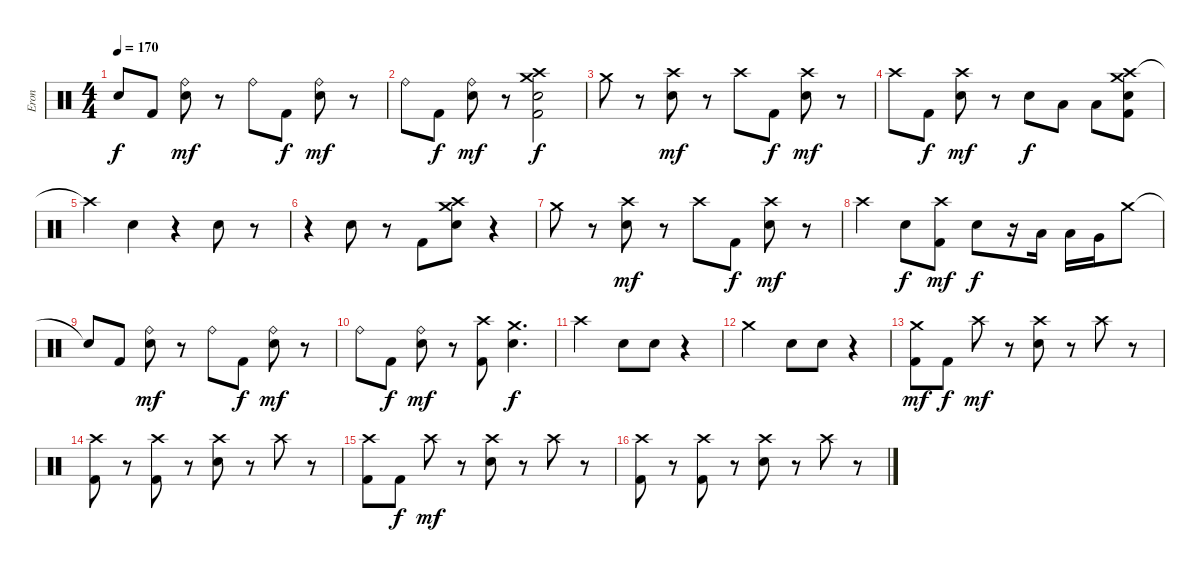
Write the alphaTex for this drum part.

\track ("Eron" "Eron") {instrument percussion}
\staff {score}
\articulation defaults
\ts (4 4)
\tempo 170
\clef neutral
\ks c "Snare (hit)"{t}.8{dy f} "Kick (hit) 2".8
("Ride (bell)" "Snare (hit) 2").8{dy mf} r.8 "Ride (bell)".8 "Kick (hit) 2".8{dy f} ("Ride (bell)" "Snare (hit) 2").8{dy mf} r.8 |
"Ride (bell)".8 "Kick (hit) 2".8{dy f} ("Ride (bell)" "Snare (hit) 2").8{dy mf} r.8 ("Crash high (hit)" "Crash medium (hit)" "Snare (hit) 2" "Kick (hit) 2").2{dy f} |
"Crash medium (hit)".8 r.8 ("Crash high (hit)" "Snare (hit) 2").8{dy mf} r.8 "Crash high (hit)".8 "Kick (hit) 2".8{dy f} ("Crash high (hit)" "Snare (hit) 2").8{dy mf} r.8 |
"Crash high (hit)".8 "Kick (hit) 2".8{dy f} ("Crash high (hit)" "Snare (hit) 2").8{dy mf} r.8 "Snare (hit) 2".8{dy f} "Low Tom (hit)".8 "Low Floor Tom (hit)".8 ("Crash high (hit)" "Crash medium (hit)" "Snare (hit) 2" "Kick (hit) 2").8 |
"Crash high (hit)"{t}.4 "Snare (hit) 2".4 r.4 "Snare (hit) 2".8 r.8 |
r.4 "Snare (hit) 2".8 r.8 "Kick (hit) 2".8 ("Crash medium (hit)" "Crash high (hit)" "Snare (hit) 2").8 r.4 |
"Crash medium (hit)".8 r.8 ("Crash high (hit)" "Snare (hit) 2").8{dy mf} r.8 "Crash high (hit)".8 "Kick (hit) 2".8{dy f} ("Crash high (hit)" "Snare (hit) 2").8{dy mf} r.8 |
"Crash high (hit)".4 "Snare (hit) 2".8{dy f} ("Crash high (hit)" "Kick (hit) 2").8{dy mf} "Snare (hit) 2".8{dy f} r.16 "Low Tom (hit)".16 "Low Tom (hit)".16 "Very Low Tom (hit)".16 "Crash medium (hit)".8 |
"Snare (hit)"{t}.8 "Kick (hit) 2".8 ("Ride (bell)" "Snare (hit) 2").8{dy mf} r.8 "Ride (bell)".8 "Kick (hit) 2".8{dy f} ("Ride (bell)" "Snare (hit) 2").8{dy mf} r.8 |
"Ride (bell)".8 "Kick (hit) 2".8{dy f} ("Ride (bell)" "Snare (hit) 2").8{dy mf} r.8 ("Crash high (hit)" "Kick (hit) 2").8 ("Crash medium (hit)" "Snare (hit) 2").4{d dy f} |
"Crash high (hit)".2 "Snare (hit) 2".8 "Snare (hit) 2".8 r.4 |
"Crash medium (hit)".2 "Snare (hit) 2".8 "Snare (hit) 2".8 r.4 |
("Crash medium (hit)" "Kick (hit) 2").8{dy mf} "Kick (hit) 2".8{dy f} "Crash high (hit)".8{dy mf} r.8 ("Crash high (hit)" "Snare (hit) 2").8 r.8 "Crash high (hit)".8 r.8 |
("Crash high (hit)" "Kick (hit) 2").8 r.8 ("Crash high (hit)" "Kick (hit) 2").8 r.8 ("Crash high (hit)" "Snare (hit) 2").8 r.8 "Crash high (hit)".8 r.8 |
("Crash high (hit)" "Kick (hit) 2").8 "Kick (hit) 2".8{dy f} "Crash high (hit)".8{dy mf} r.8 ("Crash high (hit)" "Snare (hit) 2").8 r.8 "Crash high (hit)".8 r.8 |
("Crash high (hit)" "Kick (hit) 2").8 r.8 ("Crash high (hit)" "Kick (hit) 2").8 r.8 ("Crash high (hit)" "Snare (hit) 2").8 r.8 "Crash high (hit)".8 r.8
